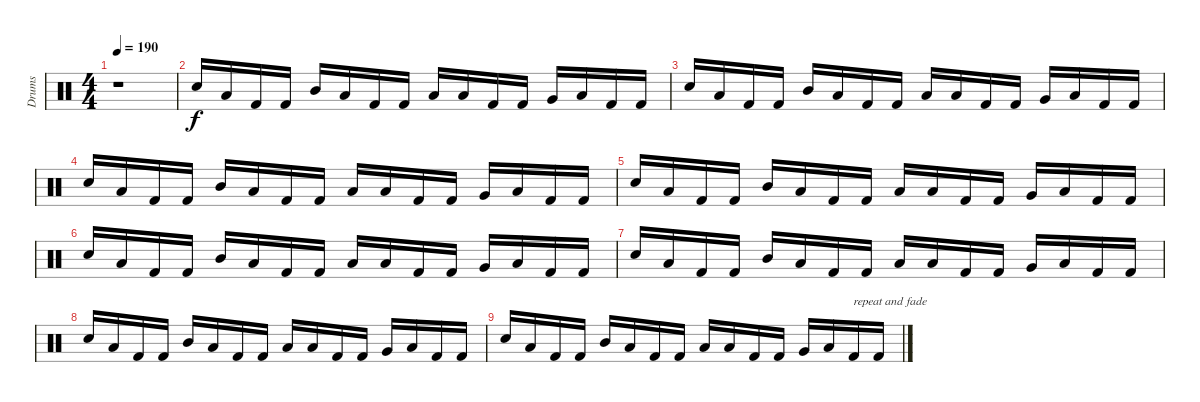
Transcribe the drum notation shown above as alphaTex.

\track ("Drums" "Drums") {instrument percussion}
\staff {score}
\articulation defaults
\ts (4 4)
\tempo 190
\clef neutral
\ks c
r.1{dy f} |
"Electric Snare (hit)".16{volume 2} "Low Floor Tom (hit)".16{volume 11} "Kick (hit) 2".16 "Kick (hit) 2".16 "Mid Tom (hit)".16 "Low Floor Tom (hit)".16 "Kick (hit) 2".16 "Kick (hit) 2".16 "Low Tom (hit)".16 "Low Floor Tom (hit)".16 "Kick (hit) 2".16 "Kick (hit) 2".16 "Very Low Tom (hit)".16 "Low Floor Tom (hit)".16 "Kick (hit) 2".16 "Kick (hit) 2".16 |
"Electric Snare (hit)".16 "Low Floor Tom (hit)".16 "Kick (hit) 2".16 "Kick (hit) 2".16 "Mid Tom (hit)".16 "Low Floor Tom (hit)".16 "Kick (hit) 2".16 "Kick (hit) 2".16 "Low Tom (hit)".16 "Low Floor Tom (hit)".16 "Kick (hit) 2".16 "Kick (hit) 2".16 "Very Low Tom (hit)".16 "Low Floor Tom (hit)".16 "Kick (hit) 2".16 "Kick (hit) 2".16 |
"Electric Snare (hit)".16 "Low Floor Tom (hit)".16 "Kick (hit) 2".16 "Kick (hit) 2".16 "Mid Tom (hit)".16 "Low Floor Tom (hit)".16 "Kick (hit) 2".16 "Kick (hit) 2".16 "Low Tom (hit)".16 "Low Floor Tom (hit)".16 "Kick (hit) 2".16 "Kick (hit) 2".16 "Very Low Tom (hit)".16 "Low Floor Tom (hit)".16 "Kick (hit) 2".16 "Kick (hit) 2".16 |
"Electric Snare (hit)".16 "Low Floor Tom (hit)".16 "Kick (hit) 2".16 "Kick (hit) 2".16 "Mid Tom (hit)".16 "Low Floor Tom (hit)".16 "Kick (hit) 2".16 "Kick (hit) 2".16 "Low Tom (hit)".16 "Low Floor Tom (hit)".16 "Kick (hit) 2".16 "Kick (hit) 2".16 "Very Low Tom (hit)".16 "Low Floor Tom (hit)".16 "Kick (hit) 2".16 "Kick (hit) 2".16 |
"Electric Snare (hit)".16 "Low Floor Tom (hit)".16 "Kick (hit) 2".16{volume 3} "Kick (hit) 2".16 "Mid Tom (hit)".16 "Low Floor Tom (hit)".16 "Kick (hit) 2".16 "Kick (hit) 2".16 "Low Tom (hit)".16 "Low Floor Tom (hit)".16 "Kick (hit) 2".16 "Kick (hit) 2".16 "Very Low Tom (hit)".16 "Low Floor Tom (hit)".16 "Kick (hit) 2".16 "Kick (hit) 2".16 |
"Electric Snare (hit)".16 "Low Floor Tom (hit)".16 "Kick (hit) 2".16 "Kick (hit) 2".16 "Mid Tom (hit)".16 "Low Floor Tom (hit)".16 "Kick (hit) 2".16 "Kick (hit) 2".16 "Low Tom (hit)".16 "Low Floor Tom (hit)".16 "Kick (hit) 2".16 "Kick (hit) 2".16 "Very Low Tom (hit)".16 "Low Floor Tom (hit)".16 "Kick (hit) 2".16 "Kick (hit) 2".16 |
"Electric Snare (hit)".16 "Low Floor Tom (hit)".16 "Kick (hit) 2".16 "Kick (hit) 2".16 "Mid Tom (hit)".16 "Low Floor Tom (hit)".16 "Kick (hit) 2".16 "Kick (hit) 2".16 "Low Tom (hit)".16 "Low Floor Tom (hit)".16 "Kick (hit) 2".16 "Kick (hit) 2".16 "Very Low Tom (hit)".16 "Low Floor Tom (hit)".16 "Kick (hit) 2".16 "Kick (hit) 2".16 |
"Electric Snare (hit)".16 "Low Floor Tom (hit)".16 "Kick (hit) 2".16 "Kick (hit) 2".16 "Mid Tom (hit)".16 "Low Floor Tom (hit)".16 "Kick (hit) 2".16 "Kick (hit) 2".16 "Low Tom (hit)".16 "Low Floor Tom (hit)".16 "Kick (hit) 2".16 "Kick (hit) 2".16 "Very Low Tom (hit)".16 "Low Floor Tom (hit)".16 "Kick (hit) 2".16{txt "repeat and fade"} "Kick (hit) 2".16
